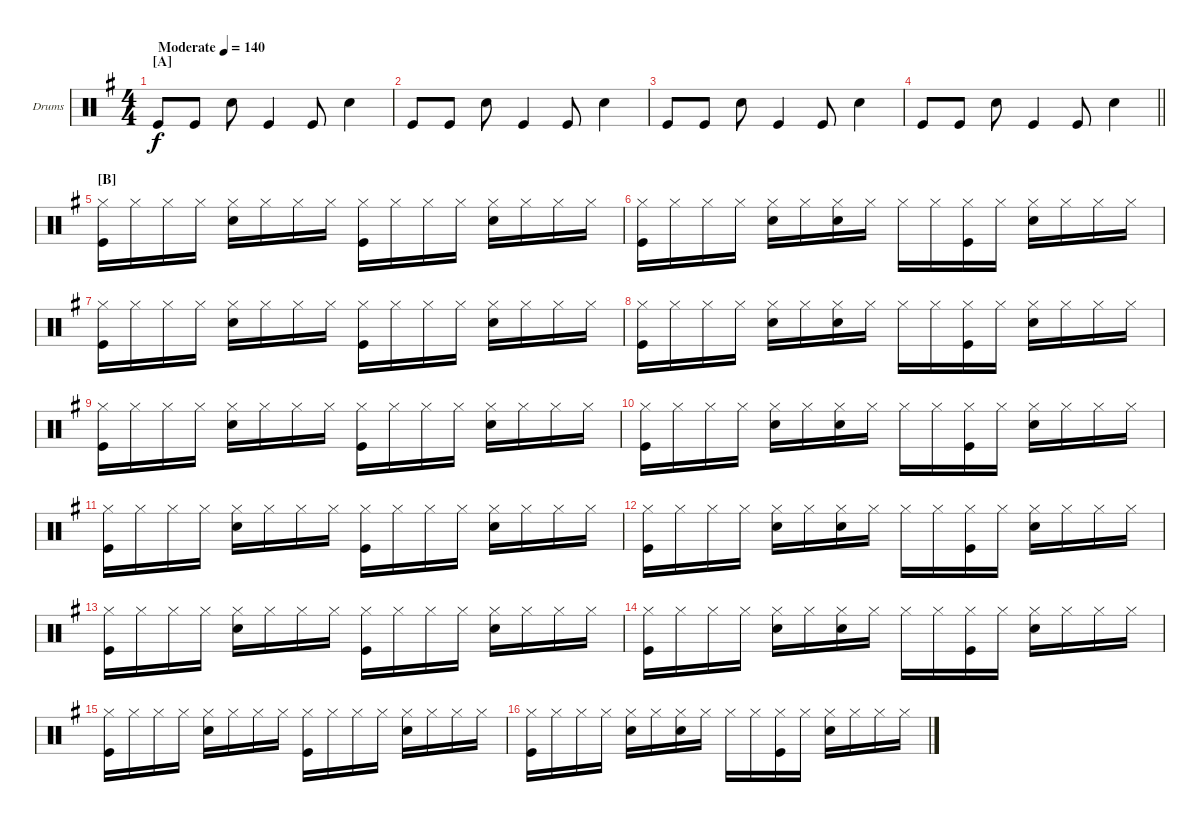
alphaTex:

\bracketExtendMode groupsimilarinstruments
\firstSystemTrackNameOrientation horizontal
\otherSystemsTrackNameOrientation horizontal
\track ("Fabrizio Moretti" "Drums") {instrument percussion}
\staff {score}
\articulation defaults
\ts (4 4)
\beaming (8 2 2 2 2)
\section ("A" "")
\tempo (140 "Moderate")
\clef neutral
\ks g "Kick (hit)".8{dy f} "Kick (hit)".8 "Snare (hit) 2".8 "Kick (hit)".4 "Kick (hit)".8 "Snare (hit) 2".4
|
"Kick (hit)".8 "Kick (hit)".8 "Snare (hit) 2".8 "Kick (hit)".4 "Kick (hit)".8 "Snare (hit) 2".4 |
"Kick (hit)".8 "Kick (hit)".8 "Snare (hit) 2".8 "Kick (hit)".4 "Kick (hit)".8 "Snare (hit) 2".4 |
\barLineRight lightlight "Kick (hit)".8 "Kick (hit)".8 "Snare (hit) 2".8 "Kick (hit)".4 "Kick (hit)".8 "Snare (hit) 2".4
|
\section ("B" "")
("Hi-Hat (closed)" "Kick (hit)").16 "Hi-Hat (closed)".16 "Hi-Hat (closed)".16 "Hi-Hat (closed)".16 ("Snare (hit) 2" "Hi-Hat (closed)").16 "Hi-Hat (closed)".16 "Hi-Hat (closed)".16 "Hi-Hat (closed)".16 ("Hi-Hat (closed)" "Kick (hit)").16 "Hi-Hat (closed)".16 "Hi-Hat (closed)".16 "Hi-Hat (closed)".16 ("Snare (hit) 2" "Hi-Hat (closed)").16 "Hi-Hat (closed)".16 "Hi-Hat (closed)".16 "Hi-Hat (closed)".16 |
("Hi-Hat (closed)" "Kick (hit)").16 "Hi-Hat (closed)".16 "Hi-Hat (closed)".16 "Hi-Hat (closed)".16 ("Snare (hit) 2" "Hi-Hat (closed)").16 "Hi-Hat (closed)".16 ("Snare (hit) 2" "Hi-Hat (closed)").16 "Hi-Hat (closed)".16 "Hi-Hat (closed)".16 "Hi-Hat (closed)".16 ("Hi-Hat (closed)" "Kick (hit)").16 "Hi-Hat (closed)".16 ("Snare (hit) 2" "Hi-Hat (closed)").16 "Hi-Hat (closed)".16 "Hi-Hat (closed)".16 "Hi-Hat (closed)".16 |
("Hi-Hat (closed)" "Kick (hit)").16 "Hi-Hat (closed)".16 "Hi-Hat (closed)".16 "Hi-Hat (closed)".16 ("Snare (hit) 2" "Hi-Hat (closed)").16 "Hi-Hat (closed)".16 "Hi-Hat (closed)".16 "Hi-Hat (closed)".16 ("Hi-Hat (closed)" "Kick (hit)").16 "Hi-Hat (closed)".16 "Hi-Hat (closed)".16 "Hi-Hat (closed)".16 ("Snare (hit) 2" "Hi-Hat (closed)").16 "Hi-Hat (closed)".16 "Hi-Hat (closed)".16 "Hi-Hat (closed)".16 |
("Hi-Hat (closed)" "Kick (hit)").16 "Hi-Hat (closed)".16 "Hi-Hat (closed)".16 "Hi-Hat (closed)".16 ("Snare (hit) 2" "Hi-Hat (closed)").16 "Hi-Hat (closed)".16 ("Snare (hit) 2" "Hi-Hat (closed)").16 "Hi-Hat (closed)".16 "Hi-Hat (closed)".16 "Hi-Hat (closed)".16 ("Hi-Hat (closed)" "Kick (hit)").16 "Hi-Hat (closed)".16 ("Snare (hit) 2" "Hi-Hat (closed)").16 "Hi-Hat (closed)".16 "Hi-Hat (closed)".16 "Hi-Hat (closed)".16 |
("Hi-Hat (closed)" "Kick (hit)").16 "Hi-Hat (closed)".16 "Hi-Hat (closed)".16 "Hi-Hat (closed)".16 ("Snare (hit) 2" "Hi-Hat (closed)").16 "Hi-Hat (closed)".16 "Hi-Hat (closed)".16 "Hi-Hat (closed)".16 ("Hi-Hat (closed)" "Kick (hit)").16 "Hi-Hat (closed)".16 "Hi-Hat (closed)".16 "Hi-Hat (closed)".16 ("Snare (hit) 2" "Hi-Hat (closed)").16 "Hi-Hat (closed)".16 "Hi-Hat (closed)".16 "Hi-Hat (closed)".16 |
("Hi-Hat (closed)" "Kick (hit)").16 "Hi-Hat (closed)".16 "Hi-Hat (closed)".16 "Hi-Hat (closed)".16 ("Snare (hit) 2" "Hi-Hat (closed)").16 "Hi-Hat (closed)".16 ("Snare (hit) 2" "Hi-Hat (closed)").16 "Hi-Hat (closed)".16 "Hi-Hat (closed)".16 "Hi-Hat (closed)".16 ("Hi-Hat (closed)" "Kick (hit)").16 "Hi-Hat (closed)".16 ("Snare (hit) 2" "Hi-Hat (closed)").16 "Hi-Hat (closed)".16 "Hi-Hat (closed)".16 "Hi-Hat (closed)".16 |
("Hi-Hat (closed)" "Kick (hit)").16 "Hi-Hat (closed)".16 "Hi-Hat (closed)".16 "Hi-Hat (closed)".16 ("Snare (hit) 2" "Hi-Hat (closed)").16 "Hi-Hat (closed)".16 "Hi-Hat (closed)".16 "Hi-Hat (closed)".16 ("Hi-Hat (closed)" "Kick (hit)").16 "Hi-Hat (closed)".16 "Hi-Hat (closed)".16 "Hi-Hat (closed)".16 ("Snare (hit) 2" "Hi-Hat (closed)").16 "Hi-Hat (closed)".16 "Hi-Hat (closed)".16 "Hi-Hat (closed)".16 |
("Hi-Hat (closed)" "Kick (hit)").16 "Hi-Hat (closed)".16 "Hi-Hat (closed)".16 "Hi-Hat (closed)".16 ("Snare (hit) 2" "Hi-Hat (closed)").16 "Hi-Hat (closed)".16 ("Snare (hit) 2" "Hi-Hat (closed)").16 "Hi-Hat (closed)".16 "Hi-Hat (closed)".16 "Hi-Hat (closed)".16 ("Hi-Hat (closed)" "Kick (hit)").16 "Hi-Hat (closed)".16 ("Snare (hit) 2" "Hi-Hat (closed)").16 "Hi-Hat (closed)".16 "Hi-Hat (closed)".16 "Hi-Hat (closed)".16 |
("Hi-Hat (closed)" "Kick (hit)").16 "Hi-Hat (closed)".16 "Hi-Hat (closed)".16 "Hi-Hat (closed)".16 ("Snare (hit) 2" "Hi-Hat (closed)").16 "Hi-Hat (closed)".16 "Hi-Hat (closed)".16 "Hi-Hat (closed)".16 ("Hi-Hat (closed)" "Kick (hit)").16 "Hi-Hat (closed)".16 "Hi-Hat (closed)".16 "Hi-Hat (closed)".16 ("Snare (hit) 2" "Hi-Hat (closed)").16 "Hi-Hat (closed)".16 "Hi-Hat (closed)".16 "Hi-Hat (closed)".16 |
("Hi-Hat (closed)" "Kick (hit)").16 "Hi-Hat (closed)".16 "Hi-Hat (closed)".16 "Hi-Hat (closed)".16 ("Snare (hit) 2" "Hi-Hat (closed)").16 "Hi-Hat (closed)".16 ("Snare (hit) 2" "Hi-Hat (closed)").16 "Hi-Hat (closed)".16 "Hi-Hat (closed)".16 "Hi-Hat (closed)".16 ("Hi-Hat (closed)" "Kick (hit)").16 "Hi-Hat (closed)".16 ("Snare (hit) 2" "Hi-Hat (closed)").16 "Hi-Hat (closed)".16 "Hi-Hat (closed)".16 "Hi-Hat (closed)".16 |
("Hi-Hat (closed)" "Kick (hit)").16 "Hi-Hat (closed)".16 "Hi-Hat (closed)".16 "Hi-Hat (closed)".16 ("Snare (hit) 2" "Hi-Hat (closed)").16 "Hi-Hat (closed)".16 "Hi-Hat (closed)".16 "Hi-Hat (closed)".16 ("Hi-Hat (closed)" "Kick (hit)").16 "Hi-Hat (closed)".16 "Hi-Hat (closed)".16 "Hi-Hat (closed)".16 ("Snare (hit) 2" "Hi-Hat (closed)").16 "Hi-Hat (closed)".16 "Hi-Hat (closed)".16 "Hi-Hat (closed)".16 |
("Hi-Hat (closed)" "Kick (hit)").16 "Hi-Hat (closed)".16 "Hi-Hat (closed)".16 "Hi-Hat (closed)".16 ("Snare (hit) 2" "Hi-Hat (closed)").16 "Hi-Hat (closed)".16 ("Snare (hit) 2" "Hi-Hat (closed)").16 "Hi-Hat (closed)".16 "Hi-Hat (closed)".16 "Hi-Hat (closed)".16 ("Hi-Hat (closed)" "Kick (hit)").16 "Hi-Hat (closed)".16 ("Snare (hit) 2" "Hi-Hat (closed)").16 "Hi-Hat (closed)".16 "Hi-Hat (closed)".16 "Hi-Hat (closed)".16
